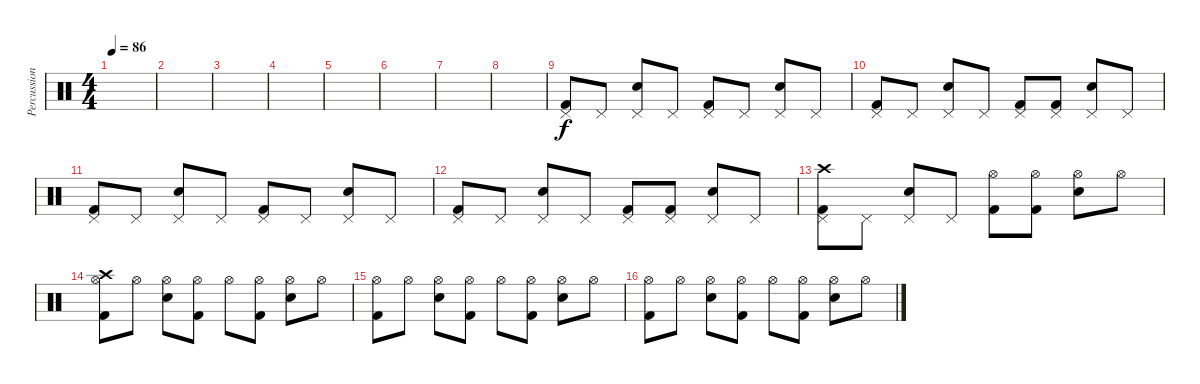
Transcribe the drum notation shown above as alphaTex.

\track ("Percussion" "Percussion") {instrument percussion}
\staff {score}
\articulation defaults
\ts (4 4)
\tempo 86
\clef neutral
\ks c
|
|
|
|
|
|
|
|
("Kick (hit) 2" "Pedal Hi-Hat (hit)").8 "Pedal Hi-Hat (hit)".8 ("Snare (hit) 2" "Pedal Hi-Hat (hit)").8 "Pedal Hi-Hat (hit)".8 ("Kick (hit) 2" "Pedal Hi-Hat (hit)").8 "Pedal Hi-Hat (hit)".8 ("Snare (hit) 2" "Pedal Hi-Hat (hit)").8 "Pedal Hi-Hat (hit)".8 |
("Kick (hit) 2" "Pedal Hi-Hat (hit)").8 "Pedal Hi-Hat (hit)".8 ("Snare (hit) 2" "Pedal Hi-Hat (hit)").8 "Pedal Hi-Hat (hit)".8 ("Kick (hit) 2" "Pedal Hi-Hat (hit)").8 ("Kick (hit) 2" "Pedal Hi-Hat (hit)").8 ("Snare (hit) 2" "Pedal Hi-Hat (hit)").8 "Pedal Hi-Hat (hit)".8 |
("Kick (hit) 2" "Pedal Hi-Hat (hit)").8 "Pedal Hi-Hat (hit)".8 ("Snare (hit) 2" "Pedal Hi-Hat (hit)").8 "Pedal Hi-Hat (hit)".8 ("Kick (hit) 2" "Pedal Hi-Hat (hit)").8 "Pedal Hi-Hat (hit)".8 ("Snare (hit) 2" "Pedal Hi-Hat (hit)").8 "Pedal Hi-Hat (hit)".8 |
("Kick (hit) 2" "Pedal Hi-Hat (hit)").8 "Pedal Hi-Hat (hit)".8 ("Snare (hit) 2" "Pedal Hi-Hat (hit)").8 "Pedal Hi-Hat (hit)".8 ("Kick (hit) 2" "Pedal Hi-Hat (hit)").8 ("Kick (hit) 2" "Pedal Hi-Hat (hit)").8 ("Snare (hit) 2" "Pedal Hi-Hat (hit)").8 "Pedal Hi-Hat (hit)".8 |
("Kick (hit) 2" "Pedal Hi-Hat (hit)" "Crash high (hit)").8 "Pedal Hi-Hat (hit)".8 ("Snare (hit) 2" "Pedal Hi-Hat (hit)").8 "Pedal Hi-Hat (hit)".8 ("Kick (hit) 2" "Hi-Hat (open)").8 ("Kick (hit) 2" "Hi-Hat (open)").8 ("Snare (hit) 2" "Hi-Hat (open)").8 "Hi-Hat (open)".8 |
("Kick (hit) 2" "Hi-Hat (open)" "Crash high (hit)").8 "Hi-Hat (open)".8 ("Snare (hit) 2" "Hi-Hat (open)").8 ("Kick (hit) 2" "Hi-Hat (open)").8 "Hi-Hat (open)".8 ("Kick (hit) 2" "Hi-Hat (open)").8 ("Snare (hit) 2" "Hi-Hat (open)").8 "Hi-Hat (open)".8 |
("Kick (hit) 2" "Hi-Hat (open)").8 "Hi-Hat (open)".8 ("Snare (hit) 2" "Hi-Hat (open)").8 ("Kick (hit) 2" "Hi-Hat (open)").8 "Hi-Hat (open)".8 ("Kick (hit) 2" "Hi-Hat (open)").8 ("Snare (hit) 2" "Hi-Hat (open)").8 "Hi-Hat (open)".8 |
("Kick (hit) 2" "Hi-Hat (open)").8 "Hi-Hat (open)".8 ("Snare (hit) 2" "Hi-Hat (open)").8 ("Kick (hit) 2" "Hi-Hat (open)").8 "Hi-Hat (open)".8 ("Kick (hit) 2" "Hi-Hat (open)").8 ("Snare (hit) 2" "Hi-Hat (open)").8 "Hi-Hat (open)".8
